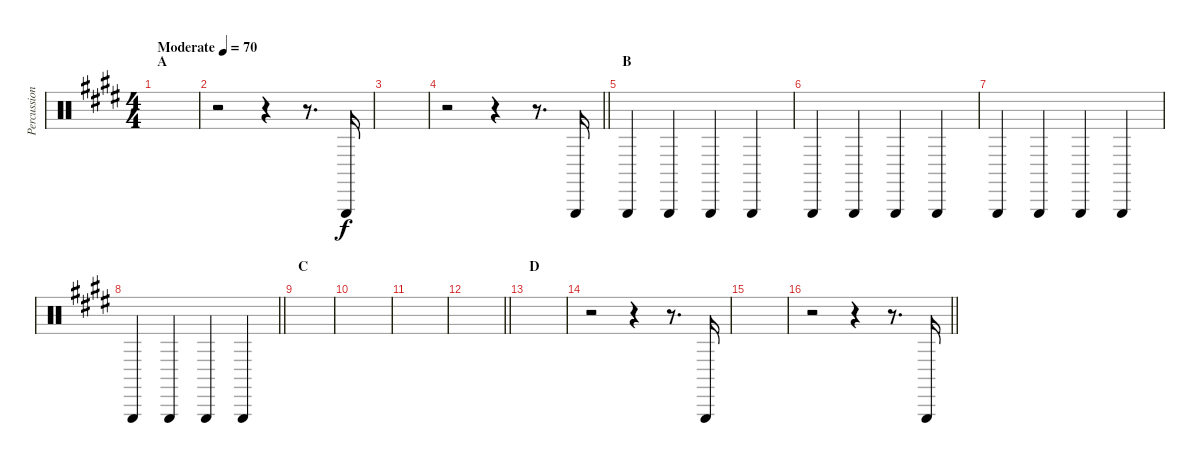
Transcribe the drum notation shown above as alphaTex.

\track ("Percussion" "Percussion") {instrument percussion}
\staff {score}
\articulation defaults
\ts (4 4)
\section ("" "A")
\tempo (70 "Moderate")
\clef neutral
\ks e
|
r.2 r.4 r.8{d} "Triangle (hit)".16 |
|
\barLineRight lightlight
r.2 r.4 r.8{d} "Triangle (hit)".16 |
\section ("" "B")
"Triangle (hit)".4 "Triangle (hit)".4 "Triangle (hit)".4 "Triangle (hit)".4 |
"Triangle (hit)".4 "Triangle (hit)".4 "Triangle (hit)".4 "Triangle (hit)".4 |
"Triangle (hit)".4 "Triangle (hit)".4 "Triangle (hit)".4 "Triangle (hit)".4 |
\barLineRight lightlight "Triangle (hit)".4 "Triangle (hit)".4 "Triangle (hit)".4 "Triangle (hit)".4
|
\section ("" "C")
|
|
|
\barLineRight lightlight
|
\section ("" "D")
|
r.2 r.4 r.8{d} "Triangle (hit)".16 |
|
\barLineRight lightlight
r.2 r.4 r.8{d} "Triangle (hit)".16
